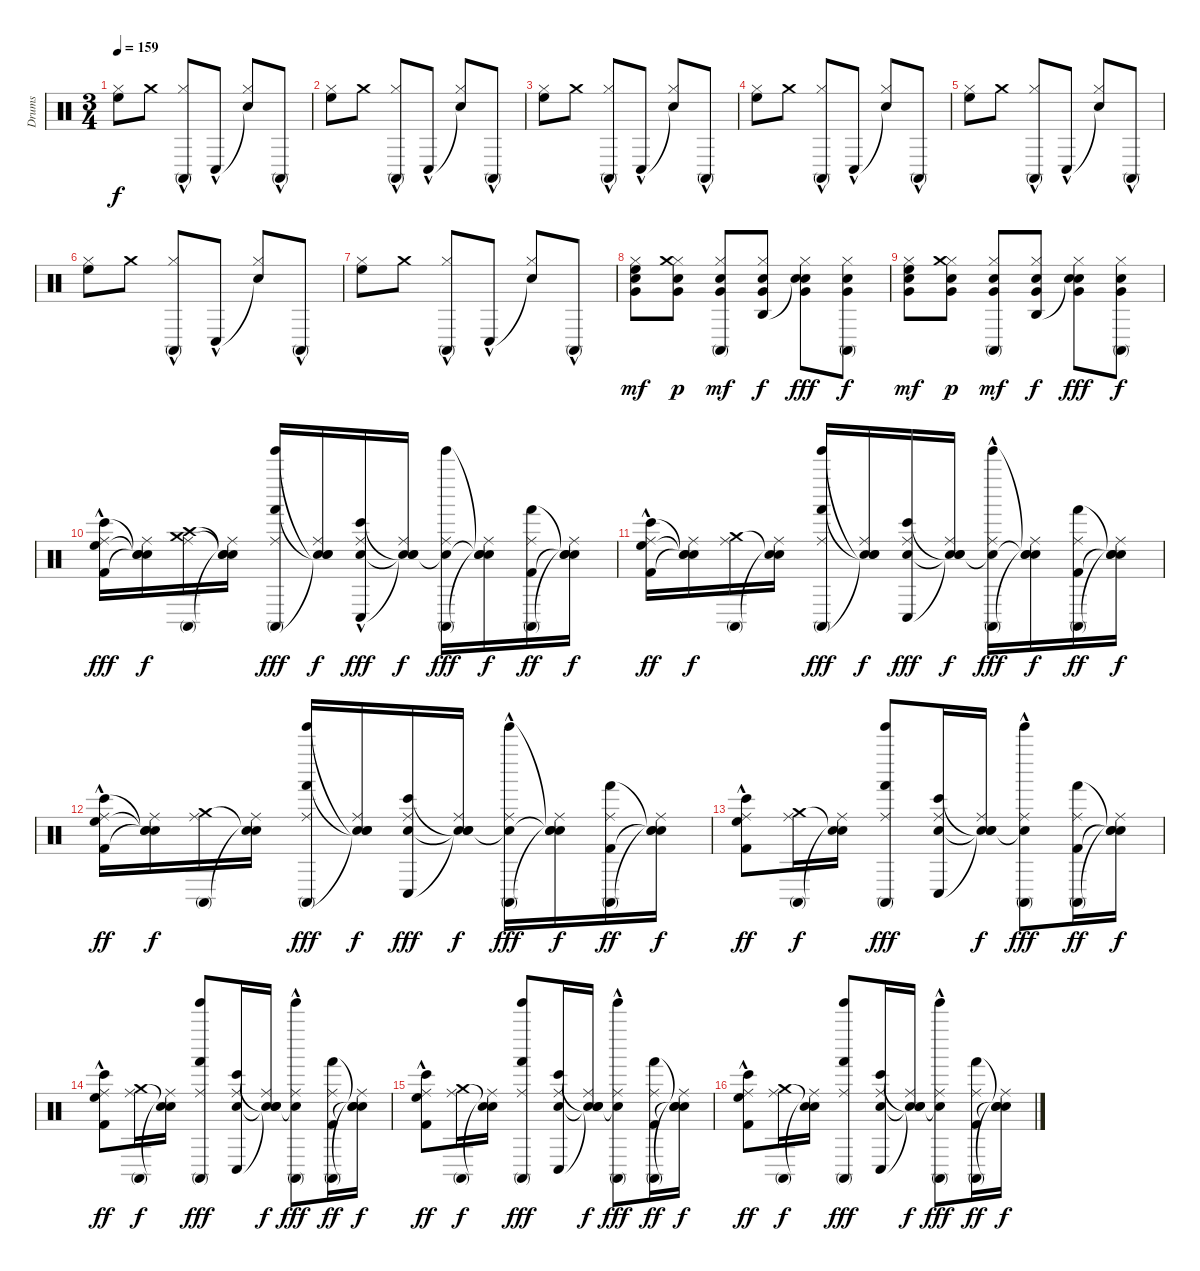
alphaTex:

\track ("Drums" "Drums") {instrument percussion}
\staff {score}
\articulation defaults
\ts (3 4)
\tempo 159
\clef neutral
\ks c
("High Floor Tom (hit)" "Hi-Hat (closed)").8{dy f} "Crash medium (hit)".8 ("Conga high (mute)"{hac} "Hi-Hat (closed)").8 "Conga low (hit)"{hac}.8 ("Snare (hit)"{t} "Hi-Hat (closed)").8 "Conga high (mute)"{hac}.8 |
("High Floor Tom (hit)" "Hi-Hat (closed)").8 "Crash medium (hit)".8 ("Conga high (mute)"{hac} "Hi-Hat (closed)").8 "Conga low (hit)"{hac}.8 ("Snare (hit)"{t} "Hi-Hat (closed)").8 "Conga high (mute)"{hac}.8 |
("High Floor Tom (hit)" "Hi-Hat (closed)").8 "Crash medium (hit)".8 ("Conga high (mute)"{hac} "Hi-Hat (closed)").8 "Conga low (hit)"{hac}.8 ("Snare (hit)"{t} "Hi-Hat (closed)").8 "Conga high (mute)"{hac}.8 |
("High Floor Tom (hit)" "Hi-Hat (closed)").8 "Crash medium (hit)".8 ("Conga high (mute)"{hac} "Hi-Hat (closed)").8 "Conga low (hit)"{hac}.8 ("Snare (hit)"{t} "Hi-Hat (closed)").8 "Conga high (mute)"{hac}.8 |
("High Floor Tom (hit)" "Hi-Hat (closed)").8 "Crash medium (hit)".8 ("Conga high (mute)"{hac} "Hi-Hat (closed)").8 "Conga low (hit)"{hac}.8 ("Snare (hit)"{t} "Hi-Hat (closed)").8 "Conga high (mute)"{hac}.8 |
("High Floor Tom (hit)" "Hi-Hat (closed)").8 "Crash medium (hit)".8 ("Conga high (mute)"{hac} "Hi-Hat (closed)").8 "Conga low (hit)"{hac}.8 ("Snare (hit)"{t} "Hi-Hat (closed)").8 "Conga high (mute)"{hac}.8 |
("High Floor Tom (hit)" "Hi-Hat (closed)").8 "Crash medium (hit)".8 ("Conga high (mute)"{hac} "Hi-Hat (closed)").8 "Conga low (hit)"{hac}.8 ("Snare (hit)"{t} "Hi-Hat (closed)").8 "Conga high (mute)"{hac}.8 |
("Hi-Hat (closed)" "Snare (hit) 2" "Very Low Tom (hit)" "High Floor Tom (hit)").8{dy mf} ("Hi-Hat (closed)" "Snare (hit) 2" "Very Low Tom (hit)" "Crash medium (hit)").8{dy p} ("Hi-Hat (closed)" "Snare (hit) 2" "Very Low Tom (hit)" "Conga high (mute)").8{dy mf} ("Hi-Hat (closed)" "Snare (hit) 2" "Very Low Tom (hit)" "Agogo high (hit)").8{dy f} ("Hi-Hat (closed)" "Snare (hit) 2" "Very Low Tom (hit)" "Snare (hit)"{t}).8{dy fff} ("Hi-Hat (closed)" "Snare (hit) 2" "Very Low Tom (hit)" "Conga high (mute)").8{dy f} |
("Hi-Hat (closed)" "Snare (hit) 2" "Very Low Tom (hit)" "High Floor Tom (hit)").8{dy mf} ("Hi-Hat (closed)" "Snare (hit) 2" "Very Low Tom (hit)" "Crash medium (hit)").8{dy p} ("Hi-Hat (closed)" "Snare (hit) 2" "Very Low Tom (hit)" "Conga high (mute)").8{dy mf} ("Hi-Hat (closed)" "Snare (hit) 2" "Very Low Tom (hit)" "Agogo high (hit)").8{dy f} ("Hi-Hat (closed)" "Snare (hit) 2" "Very Low Tom (hit)" "Snare (hit)"{t}).8{dy fff} ("Hi-Hat (closed)" "Snare (hit) 2" "Very Low Tom (hit)" "Conga high (mute)").8{dy f} |
("Kick (hit) 2"{hac} "Bongo High (hit)" "Ride (middle)"{hac} "High Floor Tom (hit)").16{dy fff} ("Snare (hit)"{t} "Snare (hit)"{t} "Ride (middle)" "Snare (hit)"{t}).16{dy f} ("Crash high (hit)" "Conga high (mute)" "Ride (middle)" "Crash medium (hit)").16 ("Snare (hit)"{t} "Snare (hit)"{t} "Ride (middle)" "Snare (hit)"{t}).16 ("Tinkle Bell (hit)" "Hand (hit)" "Ride (middle)" "Conga high (mute)").16{dy fff} ("Snare (hit)"{t} "Snare (hit)"{t} "Ride (middle)" "Snare (hit)"{t}).16{dy f} ("Snare (hit) 2" "Bongo High (hit)"{hac} "Ride (middle)" "Conga low (hit)").16{dy fff} ("Snare (hit)"{t} "Snare (hit)"{t} "Ride (middle)" "Snare (hit)"{t}).16{dy f} ("Tinkle Bell (hit)" "Conga high (mute)" "Ride (middle)" "Snare (hit)"{t}).16{dy fff} ("Snare (hit)"{t} "Snare (hit)"{t} "Ride (middle)" "Snare (hit)"{t}).16{dy f} ("Kick (hit) 2" "Hand (hit)" "Ride (middle)" "Conga high (mute)").16{dy ff} ("Snare (hit)"{t} "Snare (hit)"{t} "Ride (middle)" "Snare (hit)"{t}).16{dy f} |
("Kick (hit) 2" "Bongo High (hit)"{hac} "Ride (middle)" "High Floor Tom (hit)").16{dy ff} ("Snare (hit)"{t} "Snare (hit)"{t} "Ride (middle)" "Snare (hit)"{t}).16{dy f} ("Conga high (mute)" "Ride (middle)" "Crash medium (hit)").16 ("Snare (hit)"{t} "Ride (middle)" "Snare (hit)"{t}).16 ("Tinkle Bell (hit)" "Hand (hit)" "Ride (middle)" "Conga high (mute)").16{dy fff} ("Snare (hit)"{t} "Snare (hit)"{t} "Ride (middle)" "Snare (hit)"{t}).16{dy f} ("Snare (hit) 2" "Bongo High (hit)" "Ride (middle)" "Conga low (hit)").16{dy fff} ("Snare (hit)"{t} "Snare (hit)"{t} "Ride (middle)" "Snare (hit)"{t}).16{dy f} ("Tinkle Bell (hit)" "Conga high (mute)"{hac} "Ride (middle)" "Snare (hit)"{t}).16{dy fff} ("Snare (hit)"{t} "Snare (hit)"{t} "Ride (middle)" "Snare (hit)"{t}).16{dy f} ("Kick (hit) 2" "Hand (hit)" "Ride (middle)" "Conga high (mute)").16{dy ff} ("Snare (hit)"{t} "Snare (hit)"{t} "Ride (middle)" "Snare (hit)"{t}).16{dy f} |
("Kick (hit) 2" "Bongo High (hit)"{hac} "Ride (middle)" "High Floor Tom (hit)").16{dy ff} ("Snare (hit)"{t} "Snare (hit)"{t} "Ride (middle)" "Snare (hit)"{t}).16{dy f} ("Conga high (mute)" "Ride (middle)" "Crash medium (hit)").16 ("Snare (hit)"{t} "Ride (middle)" "Snare (hit)"{t}).16 ("Tinkle Bell (hit)" "Hand (hit)" "Ride (middle)" "Conga high (mute)").16{dy fff} ("Snare (hit)"{t} "Snare (hit)"{t} "Ride (middle)" "Snare (hit)"{t}).16{dy f} ("Snare (hit) 2" "Bongo High (hit)" "Ride (middle)" "Conga low (hit)").16{dy fff} ("Snare (hit)"{t} "Snare (hit)"{t} "Ride (middle)" "Snare (hit)"{t}).16{dy f} ("Tinkle Bell (hit)" "Conga high (mute)"{hac} "Ride (middle)" "Snare (hit)"{t}).16{dy fff} ("Snare (hit)"{t} "Snare (hit)"{t} "Ride (middle)" "Snare (hit)"{t}).16{dy f} ("Kick (hit) 2" "Hand (hit)" "Ride (middle)" "Conga high (mute)").16{dy ff} ("Snare (hit)"{t} "Snare (hit)"{t} "Ride (middle)" "Snare (hit)"{t}).16{dy f} |
("Kick (hit) 2" "Bongo High (hit)"{hac} "Ride (middle)" "High Floor Tom (hit)").8{dy ff} ("Conga high (mute)" "Ride (middle)" "Crash medium (hit)").16{dy f} ("Snare (hit)"{t} "Ride (middle)" "Snare (hit)"{t}).16 ("Tinkle Bell (hit)" "Hand (hit)" "Ride (middle)" "Conga high (mute)").8{dy fff} ("Snare (hit) 2" "Bongo High (hit)" "Ride (middle)" "Conga low (hit)").16 ("Snare (hit)"{t} "Snare (hit)"{t} "Ride (middle)" "Snare (hit)"{t}).16{dy f} ("Tinkle Bell (hit)" "Conga high (mute)"{hac} "Ride (middle)" "Snare (hit)"{t}).8{dy fff} ("Kick (hit) 2" "Hand (hit)" "Ride (middle)" "Conga high (mute)").16{dy ff} ("Snare (hit)"{t} "Snare (hit)"{t} "Ride (middle)" "Snare (hit)"{t}).16{dy f} |
("Kick (hit) 2" "Bongo High (hit)"{hac} "Ride (middle)" "High Floor Tom (hit)").8{dy ff} ("Conga high (mute)" "Ride (middle)" "Crash medium (hit)").16{dy f} ("Snare (hit)"{t} "Ride (middle)" "Snare (hit)"{t}).16 ("Tinkle Bell (hit)" "Hand (hit)" "Ride (middle)" "Conga high (mute)").8{dy fff} ("Snare (hit) 2" "Bongo High (hit)" "Ride (middle)" "Conga low (hit)").16 ("Snare (hit)"{t} "Snare (hit)"{t} "Ride (middle)" "Snare (hit)"{t}).16{dy f} ("Tinkle Bell (hit)" "Conga high (mute)"{hac} "Ride (middle)" "Snare (hit)"{t}).8{dy fff} ("Kick (hit) 2" "Hand (hit)" "Ride (middle)" "Conga high (mute)").16{dy ff} ("Snare (hit)"{t} "Snare (hit)"{t} "Ride (middle)" "Snare (hit)"{t}).16{dy f} |
("Kick (hit) 2" "Bongo High (hit)"{hac} "Ride (middle)" "High Floor Tom (hit)").8{dy ff} ("Conga high (mute)" "Ride (middle)" "Crash medium (hit)").16{dy f} ("Snare (hit)"{t} "Ride (middle)" "Snare (hit)"{t}).16 ("Tinkle Bell (hit)" "Hand (hit)" "Ride (middle)" "Conga high (mute)").8{dy fff} ("Snare (hit) 2" "Bongo High (hit)" "Ride (middle)" "Conga low (hit)").16 ("Snare (hit)"{t} "Snare (hit)"{t} "Ride (middle)" "Snare (hit)"{t}).16{dy f} ("Tinkle Bell (hit)" "Conga high (mute)"{hac} "Ride (middle)" "Snare (hit)"{t}).8{dy fff} ("Kick (hit) 2" "Hand (hit)" "Ride (middle)" "Conga high (mute)").16{dy ff} ("Snare (hit)"{t} "Snare (hit)"{t} "Ride (middle)" "Snare (hit)"{t}).16{dy f} |
("Kick (hit) 2" "Bongo High (hit)"{hac} "Ride (middle)" "High Floor Tom (hit)").8{dy ff} ("Conga high (mute)" "Ride (middle)" "Crash medium (hit)").16{dy f} ("Snare (hit)"{t} "Ride (middle)" "Snare (hit)"{t}).16 ("Tinkle Bell (hit)" "Hand (hit)" "Ride (middle)" "Conga high (mute)").8{dy fff} ("Snare (hit) 2" "Bongo High (hit)" "Ride (middle)" "Conga low (hit)").16 ("Snare (hit)"{t} "Snare (hit)"{t} "Ride (middle)" "Snare (hit)"{t}).16{dy f} ("Tinkle Bell (hit)" "Conga high (mute)"{hac} "Ride (middle)" "Snare (hit)"{t}).8{dy fff} ("Kick (hit) 2" "Hand (hit)" "Ride (middle)" "Conga high (mute)").16{dy ff} ("Snare (hit)"{t} "Snare (hit)"{t} "Ride (middle)" "Snare (hit)"{t}).16{dy f}
